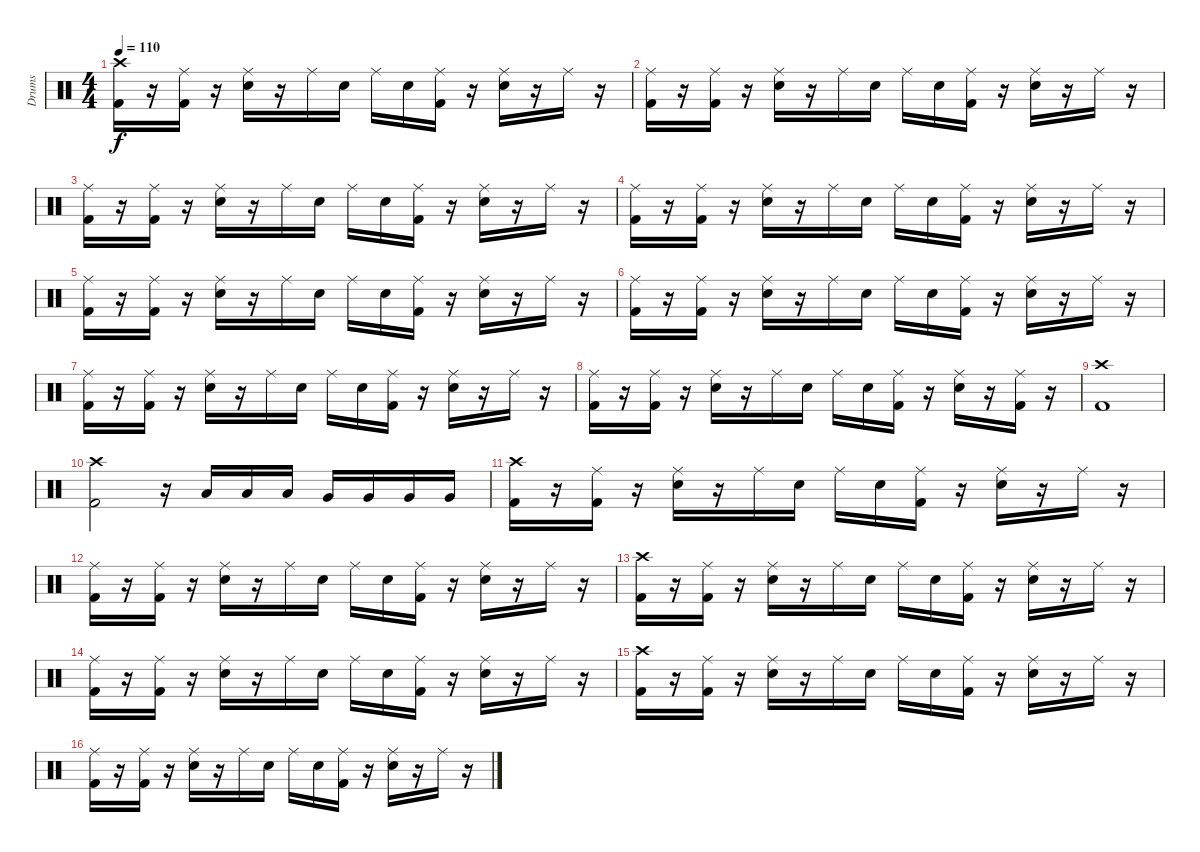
\track ("Drums" "Drums") {instrument percussion}
\staff {score}
\articulation defaults
\ts (4 4)
\tempo 110
\clef neutral
\ks c
("Crash high (hit)" "Kick (hit) 2").16{dy f} r.16 ("Ride (middle)" "Kick (hit) 2").16 r.16 ("Ride (middle)" "Electric Snare (hit)").16 r.16 "Ride (middle)".16 "Electric Snare (hit)".16 "Ride (middle)".16 "Electric Snare (hit)".16 ("Ride (middle)" "Kick (hit) 2").16 r.16 ("Ride (middle)" "Electric Snare (hit)").16 r.16 "Ride (middle)".16 r.16 |
("Ride (middle)" "Kick (hit) 2").16 r.16 ("Ride (middle)" "Kick (hit) 2").16 r.16 ("Ride (middle)" "Electric Snare (hit)").16 r.16 "Ride (middle)".16 "Electric Snare (hit)".16 "Ride (middle)".16 "Electric Snare (hit)".16 ("Ride (middle)" "Kick (hit) 2").16 r.16 ("Ride (middle)" "Electric Snare (hit)").16 r.16 "Ride (middle)".16 r.16 |
("Ride (middle)" "Kick (hit) 2").16 r.16 ("Ride (middle)" "Kick (hit) 2").16 r.16 ("Ride (middle)" "Electric Snare (hit)").16 r.16 "Ride (middle)".16 "Electric Snare (hit)".16 "Ride (middle)".16 "Electric Snare (hit)".16 ("Ride (middle)" "Kick (hit) 2").16 r.16 ("Ride (middle)" "Electric Snare (hit)").16 r.16 "Ride (middle)".16 r.16 |
("Ride (middle)" "Kick (hit) 2").16 r.16 ("Ride (middle)" "Kick (hit) 2").16 r.16 ("Ride (middle)" "Electric Snare (hit)").16 r.16 "Ride (middle)".16 "Electric Snare (hit)".16 "Ride (middle)".16 "Electric Snare (hit)".16 ("Ride (middle)" "Kick (hit) 2").16 r.16 ("Ride (middle)" "Electric Snare (hit)").16 r.16 "Ride (middle)".16 r.16 |
("Ride (middle)" "Kick (hit) 2").16 r.16 ("Ride (middle)" "Kick (hit) 2").16 r.16 ("Ride (middle)" "Electric Snare (hit)").16 r.16 "Ride (middle)".16 "Electric Snare (hit)".16 "Ride (middle)".16 "Electric Snare (hit)".16 ("Ride (middle)" "Kick (hit) 2").16 r.16 ("Ride (middle)" "Electric Snare (hit)").16 r.16 "Ride (middle)".16 r.16 |
("Ride (middle)" "Kick (hit) 2").16 r.16 ("Ride (middle)" "Kick (hit) 2").16 r.16 ("Ride (middle)" "Electric Snare (hit)").16 r.16 "Ride (middle)".16 "Electric Snare (hit)".16 "Ride (middle)".16 "Electric Snare (hit)".16 ("Ride (middle)" "Kick (hit) 2").16 r.16 ("Ride (middle)" "Electric Snare (hit)").16 r.16 "Ride (middle)".16 r.16 |
("Ride (middle)" "Kick (hit) 2").16 r.16 ("Ride (middle)" "Kick (hit) 2").16 r.16 ("Ride (middle)" "Electric Snare (hit)").16 r.16 "Ride (middle)".16 "Electric Snare (hit)".16 "Ride (middle)".16 "Electric Snare (hit)".16 ("Ride (middle)" "Kick (hit) 2").16 r.16 ("Ride (middle)" "Electric Snare (hit)").16 r.16 "Ride (middle)".16 r.16 |
("Ride (middle)" "Kick (hit) 2").16 r.16 ("Ride (middle)" "Kick (hit) 2").16 r.16 ("Ride (middle)" "Electric Snare (hit)").16 r.16 "Ride (middle)".16 "Electric Snare (hit)".16 "Ride (middle)".16 "Electric Snare (hit)".16 ("Ride (middle)" "Kick (hit) 2").16 r.16 ("Ride (middle)" "Electric Snare (hit)").16 r.16 ("Ride (middle)" "Kick (hit) 2").16 r.16 |
("Crash high (hit)" "Kick (hit) 2").1 |
("Crash high (hit)" "Kick (hit) 2").2 r.16 "Low Tom (hit)".16 "Low Tom (hit)".16 "Low Tom (hit)".16 "Very Low Tom (hit)".16 "Very Low Tom (hit)".16 "Very Low Tom (hit)".16 "Very Low Tom (hit)".16 |
("Crash high (hit)" "Kick (hit) 2").16 r.16 ("Ride (middle)" "Kick (hit) 2").16 r.16 ("Ride (middle)" "Electric Snare (hit)").16 r.16 "Ride (middle)".16 "Electric Snare (hit)".16 "Ride (middle)".16 "Electric Snare (hit)".16 ("Ride (middle)" "Kick (hit) 2").16 r.16 ("Ride (middle)" "Electric Snare (hit)").16 r.16 "Ride (middle)".16 r.16 |
("Ride (middle)" "Kick (hit) 2").16 r.16 ("Ride (middle)" "Kick (hit) 2").16 r.16 ("Ride (middle)" "Electric Snare (hit)").16 r.16 "Ride (middle)".16 "Electric Snare (hit)".16 "Ride (middle)".16 "Electric Snare (hit)".16 ("Ride (middle)" "Kick (hit) 2").16 r.16 ("Ride (middle)" "Electric Snare (hit)").16 r.16 "Ride (middle)".16 r.16 |
("Crash high (hit)" "Kick (hit) 2").16 r.16 ("Ride (middle)" "Kick (hit) 2").16 r.16 ("Ride (middle)" "Electric Snare (hit)").16 r.16 "Ride (middle)".16 "Electric Snare (hit)".16 "Ride (middle)".16 "Electric Snare (hit)".16 ("Ride (middle)" "Kick (hit) 2").16 r.16 ("Ride (middle)" "Electric Snare (hit)").16 r.16 "Ride (middle)".16 r.16 |
("Ride (middle)" "Kick (hit) 2").16 r.16 ("Ride (middle)" "Kick (hit) 2").16 r.16 ("Ride (middle)" "Electric Snare (hit)").16 r.16 "Ride (middle)".16 "Electric Snare (hit)".16 "Ride (middle)".16 "Electric Snare (hit)".16 ("Ride (middle)" "Kick (hit) 2").16 r.16 ("Ride (middle)" "Electric Snare (hit)").16 r.16 "Ride (middle)".16 r.16 |
("Crash high (hit)" "Kick (hit) 2").16 r.16 ("Ride (middle)" "Kick (hit) 2").16 r.16 ("Ride (middle)" "Electric Snare (hit)").16 r.16 "Ride (middle)".16 "Electric Snare (hit)".16 "Ride (middle)".16 "Electric Snare (hit)".16 ("Ride (middle)" "Kick (hit) 2").16 r.16 ("Ride (middle)" "Electric Snare (hit)").16 r.16 "Ride (middle)".16 r.16 |
("Ride (middle)" "Kick (hit) 2").16 r.16 ("Ride (middle)" "Kick (hit) 2").16 r.16 ("Ride (middle)" "Electric Snare (hit)").16 r.16 "Ride (middle)".16 "Electric Snare (hit)".16 "Ride (middle)".16 "Electric Snare (hit)".16 ("Ride (middle)" "Kick (hit) 2").16 r.16 ("Ride (middle)" "Electric Snare (hit)").16 r.16 "Ride (middle)".16 r.16
